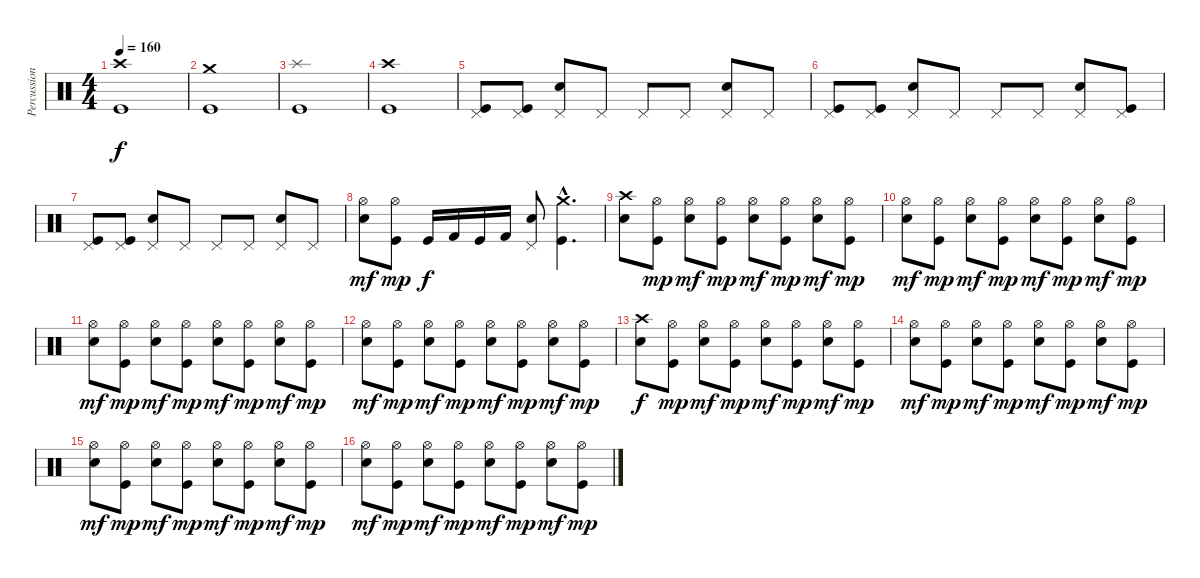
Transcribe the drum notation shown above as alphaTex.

\track ("Percussions" "Percussion") {instrument percussion}
\staff {score}
\articulation defaults
\ts (4 4)
\tempo 160
\clef neutral
\ks c
("Kick (hit)" "Crash high (hit)").1{dy f} |
("Kick (hit)" "Crash medium (hit)").1 |
("Kick (hit)" "Splash (hit)").1 |
("Kick (hit)" "Crash high (hit)").1 |
("Kick (hit)" "Pedal Hi-Hat (hit)").8 ("Kick (hit)" "Pedal Hi-Hat (hit)").8 ("Electric Snare (hit)" "Pedal Hi-Hat (hit)").8 "Pedal Hi-Hat (hit)".8 "Pedal Hi-Hat (hit)".8 "Pedal Hi-Hat (hit)".8 ("Electric Snare (hit)" "Pedal Hi-Hat (hit)").8 "Pedal Hi-Hat (hit)".8 |
("Kick (hit)" "Pedal Hi-Hat (hit)").8 ("Kick (hit)" "Pedal Hi-Hat (hit)").8 ("Electric Snare (hit)" "Pedal Hi-Hat (hit)").8 "Pedal Hi-Hat (hit)".8 "Pedal Hi-Hat (hit)".8 "Pedal Hi-Hat (hit)".8 ("Electric Snare (hit)" "Pedal Hi-Hat (hit)").8 ("Kick (hit)" "Pedal Hi-Hat (hit)").8 |
("Kick (hit)" "Pedal Hi-Hat (hit)").8 ("Kick (hit)" "Pedal Hi-Hat (hit)").8 ("Electric Snare (hit)" "Pedal Hi-Hat (hit)").8 "Pedal Hi-Hat (hit)".8 "Pedal Hi-Hat (hit)".8 "Pedal Hi-Hat (hit)".8 ("Electric Snare (hit)" "Pedal Hi-Hat (hit)").8 "Pedal Hi-Hat (hit)".8 |
("Electric Snare (hit)" "Hi-Hat (open)").8{dy mf} ("Kick (hit)" "Hi-Hat (open)").8{dy mp} "Kick (hit)".16{dy f} "Kick (hit) 2".16 "Kick (hit)".16 "Kick (hit) 2".16 ("Electric Snare (hit)" "Pedal Hi-Hat (hit)").8 ("Kick (hit)"{hac} "Crash medium (hit)"{hac}).4{d} |
("Electric Snare (hit)" "Crash high (hit)").8 ("Kick (hit)" "Hi-Hat (open)").8{dy mp} ("Electric Snare (hit)" "Hi-Hat (open)").8{dy mf} ("Kick (hit)" "Hi-Hat (open)").8{dy mp} ("Electric Snare (hit)" "Hi-Hat (open)").8{dy mf} ("Kick (hit)" "Hi-Hat (open)").8{dy mp} ("Electric Snare (hit)" "Hi-Hat (open)").8{dy mf} ("Kick (hit)" "Hi-Hat (open)").8{dy mp} |
("Electric Snare (hit)" "Hi-Hat (open)").8{dy mf} ("Kick (hit)" "Hi-Hat (open)").8{dy mp} ("Electric Snare (hit)" "Hi-Hat (open)").8{dy mf} ("Kick (hit)" "Hi-Hat (open)").8{dy mp} ("Electric Snare (hit)" "Hi-Hat (open)").8{dy mf} ("Kick (hit)" "Hi-Hat (open)").8{dy mp} ("Electric Snare (hit)" "Hi-Hat (open)").8{dy mf} ("Kick (hit)" "Hi-Hat (open)").8{dy mp} |
("Electric Snare (hit)" "Hi-Hat (open)").8{dy mf} ("Kick (hit)" "Hi-Hat (open)").8{dy mp} ("Electric Snare (hit)" "Hi-Hat (open)").8{dy mf} ("Kick (hit)" "Hi-Hat (open)").8{dy mp} ("Electric Snare (hit)" "Hi-Hat (open)").8{dy mf} ("Kick (hit)" "Hi-Hat (open)").8{dy mp} ("Electric Snare (hit)" "Hi-Hat (open)").8{dy mf} ("Kick (hit)" "Hi-Hat (open)").8{dy mp} |
("Electric Snare (hit)" "Hi-Hat (open)").8{dy mf} ("Kick (hit)" "Hi-Hat (open)").8{dy mp} ("Electric Snare (hit)" "Hi-Hat (open)").8{dy mf} ("Kick (hit)" "Hi-Hat (open)").8{dy mp} ("Electric Snare (hit)" "Hi-Hat (open)").8{dy mf} ("Kick (hit)" "Hi-Hat (open)").8{dy mp} ("Electric Snare (hit)" "Hi-Hat (open)").8{dy mf} ("Kick (hit)" "Hi-Hat (open)").8{dy mp} |
("Electric Snare (hit)" "Crash high (hit)").8{dy f} ("Kick (hit)" "Hi-Hat (open)").8{dy mp} ("Electric Snare (hit)" "Hi-Hat (open)").8{dy mf} ("Kick (hit)" "Hi-Hat (open)").8{dy mp} ("Electric Snare (hit)" "Hi-Hat (open)").8{dy mf} ("Kick (hit)" "Hi-Hat (open)").8{dy mp} ("Electric Snare (hit)" "Hi-Hat (open)").8{dy mf} ("Kick (hit)" "Hi-Hat (open)").8{dy mp} |
("Electric Snare (hit)" "Hi-Hat (open)").8{dy mf} ("Kick (hit)" "Hi-Hat (open)").8{dy mp} ("Electric Snare (hit)" "Hi-Hat (open)").8{dy mf} ("Kick (hit)" "Hi-Hat (open)").8{dy mp} ("Electric Snare (hit)" "Hi-Hat (open)").8{dy mf} ("Kick (hit)" "Hi-Hat (open)").8{dy mp} ("Electric Snare (hit)" "Hi-Hat (open)").8{dy mf} ("Kick (hit)" "Hi-Hat (open)").8{dy mp} |
("Electric Snare (hit)" "Hi-Hat (open)").8{dy mf} ("Kick (hit)" "Hi-Hat (open)").8{dy mp} ("Electric Snare (hit)" "Hi-Hat (open)").8{dy mf} ("Kick (hit)" "Hi-Hat (open)").8{dy mp} ("Electric Snare (hit)" "Hi-Hat (open)").8{dy mf} ("Kick (hit)" "Hi-Hat (open)").8{dy mp} ("Electric Snare (hit)" "Hi-Hat (open)").8{dy mf} ("Kick (hit)" "Hi-Hat (open)").8{dy mp} |
("Electric Snare (hit)" "Hi-Hat (open)").8{dy mf} ("Kick (hit)" "Hi-Hat (open)").8{dy mp} ("Electric Snare (hit)" "Hi-Hat (open)").8{dy mf} ("Kick (hit)" "Hi-Hat (open)").8{dy mp} ("Electric Snare (hit)" "Hi-Hat (open)").8{dy mf} ("Kick (hit)" "Hi-Hat (open)").8{dy mp} ("Electric Snare (hit)" "Hi-Hat (open)").8{dy mf} ("Kick (hit)" "Hi-Hat (open)").8{dy mp}
